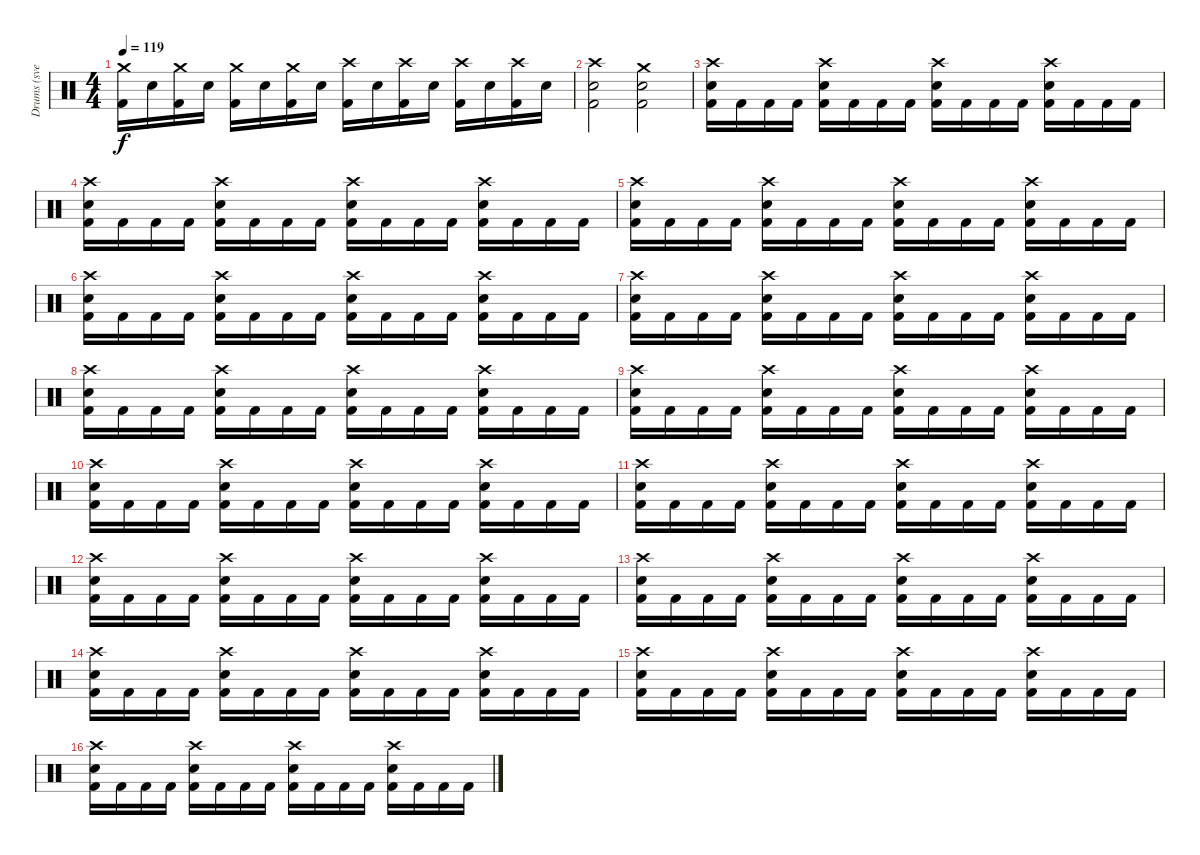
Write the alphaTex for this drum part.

\track ("Drums (svelle)" "Drums (sve") {instrument percussion}
\staff {score}
\articulation defaults
\ts (4 4)
\tempo 119
\clef neutral
\ks c
("Crash medium (hit)" "Kick (hit) 2").16{dy f} "Electric Snare (hit)".16 ("Crash medium (hit)" "Kick (hit) 2").16 "Electric Snare (hit)".16 ("Crash medium (hit)" "Kick (hit) 2").16 "Electric Snare (hit)".16 ("Crash medium (hit)" "Kick (hit) 2").16 "Electric Snare (hit)".16 ("Crash high (hit)" "Kick (hit) 2").16 "Electric Snare (hit)".16 ("Crash high (hit)" "Kick (hit) 2").16 "Electric Snare (hit)".16 ("Crash high (hit)" "Kick (hit) 2").16 "Electric Snare (hit)".16 ("Crash high (hit)" "Kick (hit) 2").16 "Electric Snare (hit)".16 |
("Crash high (hit)" "Electric Snare (hit)" "Kick (hit) 2").2 ("Crash medium (hit)" "Electric Snare (hit)" "Kick (hit) 2").2 |
("Crash high (hit)" "Electric Snare (hit)" "Kick (hit) 2").16 "Kick (hit) 2".16 "Kick (hit) 2".16 "Kick (hit) 2".16 ("Crash high (hit)" "Electric Snare (hit)" "Kick (hit) 2").16 "Kick (hit) 2".16 "Kick (hit) 2".16 "Kick (hit) 2".16 ("Crash high (hit)" "Electric Snare (hit)" "Kick (hit) 2").16 "Kick (hit) 2".16 "Kick (hit) 2".16 "Kick (hit) 2".16 ("Crash high (hit)" "Electric Snare (hit)" "Kick (hit) 2").16 "Kick (hit) 2".16 "Kick (hit) 2".16 "Kick (hit) 2".16 |
("Crash high (hit)" "Electric Snare (hit)" "Kick (hit) 2").16 "Kick (hit) 2".16 "Kick (hit) 2".16 "Kick (hit) 2".16 ("Crash high (hit)" "Electric Snare (hit)" "Kick (hit) 2").16 "Kick (hit) 2".16 "Kick (hit) 2".16 "Kick (hit) 2".16 ("Crash high (hit)" "Electric Snare (hit)" "Kick (hit) 2").16 "Kick (hit) 2".16 "Kick (hit) 2".16 "Kick (hit) 2".16 ("Crash high (hit)" "Electric Snare (hit)" "Kick (hit) 2").16 "Kick (hit) 2".16 "Kick (hit) 2".16 "Kick (hit) 2".16 |
("Crash high (hit)" "Electric Snare (hit)" "Kick (hit) 2").16 "Kick (hit) 2".16 "Kick (hit) 2".16 "Kick (hit) 2".16 ("Crash high (hit)" "Electric Snare (hit)" "Kick (hit) 2").16 "Kick (hit) 2".16 "Kick (hit) 2".16 "Kick (hit) 2".16 ("Crash high (hit)" "Electric Snare (hit)" "Kick (hit) 2").16 "Kick (hit) 2".16 "Kick (hit) 2".16 "Kick (hit) 2".16 ("Crash high (hit)" "Electric Snare (hit)" "Kick (hit) 2").16 "Kick (hit) 2".16 "Kick (hit) 2".16 "Kick (hit) 2".16 |
("Crash high (hit)" "Electric Snare (hit)" "Kick (hit) 2").16 "Kick (hit) 2".16 "Kick (hit) 2".16 "Kick (hit) 2".16 ("Crash high (hit)" "Electric Snare (hit)" "Kick (hit) 2").16 "Kick (hit) 2".16 "Kick (hit) 2".16 "Kick (hit) 2".16 ("Crash high (hit)" "Electric Snare (hit)" "Kick (hit) 2").16 "Kick (hit) 2".16 "Kick (hit) 2".16 "Kick (hit) 2".16 ("Crash high (hit)" "Electric Snare (hit)" "Kick (hit) 2").16 "Kick (hit) 2".16 "Kick (hit) 2".16 "Kick (hit) 2".16 |
("Crash high (hit)" "Electric Snare (hit)" "Kick (hit) 2").16 "Kick (hit) 2".16 "Kick (hit) 2".16 "Kick (hit) 2".16 ("Crash high (hit)" "Electric Snare (hit)" "Kick (hit) 2").16 "Kick (hit) 2".16 "Kick (hit) 2".16 "Kick (hit) 2".16 ("Crash high (hit)" "Electric Snare (hit)" "Kick (hit) 2").16 "Kick (hit) 2".16 "Kick (hit) 2".16 "Kick (hit) 2".16 ("Crash high (hit)" "Electric Snare (hit)" "Kick (hit) 2").16 "Kick (hit) 2".16 "Kick (hit) 2".16 "Kick (hit) 2".16 |
("Crash high (hit)" "Electric Snare (hit)" "Kick (hit) 2").16 "Kick (hit) 2".16 "Kick (hit) 2".16 "Kick (hit) 2".16 ("Crash high (hit)" "Electric Snare (hit)" "Kick (hit) 2").16 "Kick (hit) 2".16 "Kick (hit) 2".16 "Kick (hit) 2".16 ("Crash high (hit)" "Electric Snare (hit)" "Kick (hit) 2").16 "Kick (hit) 2".16 "Kick (hit) 2".16 "Kick (hit) 2".16 ("Crash high (hit)" "Electric Snare (hit)" "Kick (hit) 2").16 "Kick (hit) 2".16 "Kick (hit) 2".16 "Kick (hit) 2".16 |
("Crash high (hit)" "Electric Snare (hit)" "Kick (hit) 2").16 "Kick (hit) 2".16 "Kick (hit) 2".16 "Kick (hit) 2".16 ("Crash high (hit)" "Electric Snare (hit)" "Kick (hit) 2").16 "Kick (hit) 2".16 "Kick (hit) 2".16 "Kick (hit) 2".16 ("Crash high (hit)" "Electric Snare (hit)" "Kick (hit) 2").16 "Kick (hit) 2".16 "Kick (hit) 2".16 "Kick (hit) 2".16 ("Crash high (hit)" "Electric Snare (hit)" "Kick (hit) 2").16 "Kick (hit) 2".16 "Kick (hit) 2".16 "Kick (hit) 2".16 |
("Crash high (hit)" "Electric Snare (hit)" "Kick (hit) 2").16 "Kick (hit) 2".16 "Kick (hit) 2".16 "Kick (hit) 2".16 ("Crash high (hit)" "Electric Snare (hit)" "Kick (hit) 2").16 "Kick (hit) 2".16 "Kick (hit) 2".16 "Kick (hit) 2".16 ("Crash high (hit)" "Electric Snare (hit)" "Kick (hit) 2").16 "Kick (hit) 2".16 "Kick (hit) 2".16 "Kick (hit) 2".16 ("Crash high (hit)" "Electric Snare (hit)" "Kick (hit) 2").16 "Kick (hit) 2".16 "Kick (hit) 2".16 "Kick (hit) 2".16 |
("Crash high (hit)" "Electric Snare (hit)" "Kick (hit) 2").16 "Kick (hit) 2".16 "Kick (hit) 2".16 "Kick (hit) 2".16 ("Crash high (hit)" "Electric Snare (hit)" "Kick (hit) 2").16 "Kick (hit) 2".16 "Kick (hit) 2".16 "Kick (hit) 2".16 ("Crash high (hit)" "Electric Snare (hit)" "Kick (hit) 2").16 "Kick (hit) 2".16 "Kick (hit) 2".16 "Kick (hit) 2".16 ("Crash high (hit)" "Electric Snare (hit)" "Kick (hit) 2").16 "Kick (hit) 2".16 "Kick (hit) 2".16 "Kick (hit) 2".16 |
("Crash high (hit)" "Electric Snare (hit)" "Kick (hit) 2").16 "Kick (hit) 2".16 "Kick (hit) 2".16 "Kick (hit) 2".16 ("Crash high (hit)" "Electric Snare (hit)" "Kick (hit) 2").16 "Kick (hit) 2".16 "Kick (hit) 2".16 "Kick (hit) 2".16 ("Crash high (hit)" "Electric Snare (hit)" "Kick (hit) 2").16 "Kick (hit) 2".16 "Kick (hit) 2".16 "Kick (hit) 2".16 ("Crash high (hit)" "Electric Snare (hit)" "Kick (hit) 2").16 "Kick (hit) 2".16 "Kick (hit) 2".16 "Kick (hit) 2".16 |
("Crash high (hit)" "Electric Snare (hit)" "Kick (hit) 2").16 "Kick (hit) 2".16 "Kick (hit) 2".16 "Kick (hit) 2".16 ("Crash high (hit)" "Electric Snare (hit)" "Kick (hit) 2").16 "Kick (hit) 2".16 "Kick (hit) 2".16 "Kick (hit) 2".16 ("Crash high (hit)" "Electric Snare (hit)" "Kick (hit) 2").16 "Kick (hit) 2".16 "Kick (hit) 2".16 "Kick (hit) 2".16 ("Crash high (hit)" "Electric Snare (hit)" "Kick (hit) 2").16 "Kick (hit) 2".16 "Kick (hit) 2".16 "Kick (hit) 2".16 |
("Crash high (hit)" "Electric Snare (hit)" "Kick (hit) 2").16 "Kick (hit) 2".16 "Kick (hit) 2".16 "Kick (hit) 2".16 ("Crash high (hit)" "Electric Snare (hit)" "Kick (hit) 2").16 "Kick (hit) 2".16 "Kick (hit) 2".16 "Kick (hit) 2".16 ("Crash high (hit)" "Electric Snare (hit)" "Kick (hit) 2").16 "Kick (hit) 2".16 "Kick (hit) 2".16 "Kick (hit) 2".16 ("Crash high (hit)" "Electric Snare (hit)" "Kick (hit) 2").16 "Kick (hit) 2".16 "Kick (hit) 2".16 "Kick (hit) 2".16 |
("Crash high (hit)" "Electric Snare (hit)" "Kick (hit) 2").16 "Kick (hit) 2".16 "Kick (hit) 2".16 "Kick (hit) 2".16 ("Crash high (hit)" "Electric Snare (hit)" "Kick (hit) 2").16 "Kick (hit) 2".16 "Kick (hit) 2".16 "Kick (hit) 2".16 ("Crash high (hit)" "Electric Snare (hit)" "Kick (hit) 2").16 "Kick (hit) 2".16 "Kick (hit) 2".16 "Kick (hit) 2".16 ("Crash high (hit)" "Electric Snare (hit)" "Kick (hit) 2").16 "Kick (hit) 2".16 "Kick (hit) 2".16 "Kick (hit) 2".16 |
("Crash high (hit)" "Electric Snare (hit)" "Kick (hit) 2").16 "Kick (hit) 2".16 "Kick (hit) 2".16 "Kick (hit) 2".16 ("Crash high (hit)" "Electric Snare (hit)" "Kick (hit) 2").16 "Kick (hit) 2".16 "Kick (hit) 2".16 "Kick (hit) 2".16 ("Crash high (hit)" "Electric Snare (hit)" "Kick (hit) 2").16 "Kick (hit) 2".16 "Kick (hit) 2".16 "Kick (hit) 2".16 ("Crash high (hit)" "Electric Snare (hit)" "Kick (hit) 2").16 "Kick (hit) 2".16 "Kick (hit) 2".16 "Kick (hit) 2".16
